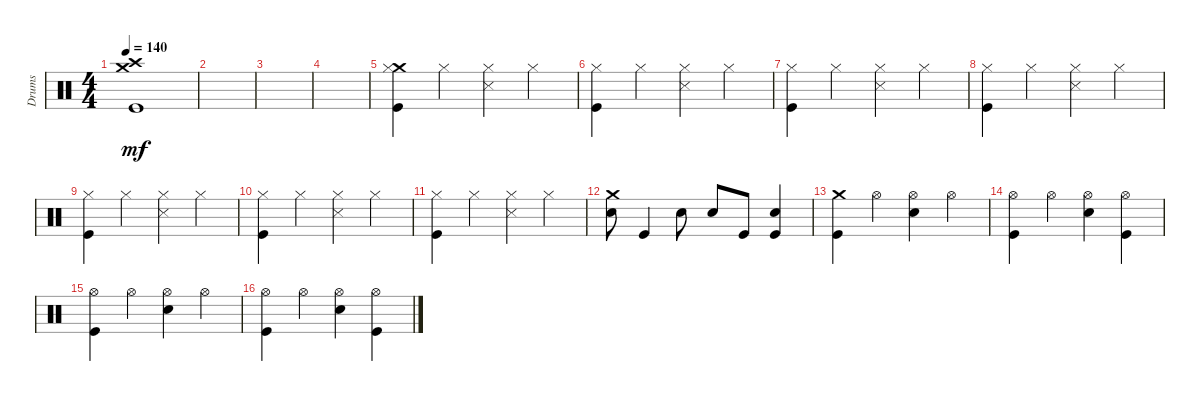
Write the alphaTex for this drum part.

\track ("Drums" "Drums") {instrument percussion}
\staff {score}
\articulation defaults
\ts (4 4)
\tempo 140
\clef neutral
\ks c
("Kick (hit)" "Crash high (hit)" "Crash medium (hit)").1{dy mf} |
|
|
|
("Kick (hit)" "Crash medium (hit)" "Hi-Hat (closed)").4 "Hi-Hat (closed)".4 ("Hi-Hat (closed)" "Snare (side stick) 3").4 "Hi-Hat (closed)".4 |
("Hi-Hat (closed)" "Kick (hit)").4 "Hi-Hat (closed)".4 ("Hi-Hat (closed)" "Snare (side stick) 3").4 "Hi-Hat (closed)".4 |
("Hi-Hat (closed)" "Kick (hit)").4 "Hi-Hat (closed)".4 ("Hi-Hat (closed)" "Snare (side stick) 3").4 "Hi-Hat (closed)".4 |
("Hi-Hat (closed)" "Kick (hit)").4 "Hi-Hat (closed)".4 ("Hi-Hat (closed)" "Snare (side stick) 3").4 "Hi-Hat (closed)".4 |
("Kick (hit)" "Hi-Hat (closed)").4 "Hi-Hat (closed)".4 ("Hi-Hat (closed)" "Snare (side stick) 3").4 "Hi-Hat (closed)".4 |
("Hi-Hat (closed)" "Kick (hit)").4 "Hi-Hat (closed)".4 ("Hi-Hat (closed)" "Snare (side stick) 3").4 "Hi-Hat (closed)".4 |
("Hi-Hat (closed)" "Kick (hit)").4 "Hi-Hat (closed)".4 ("Hi-Hat (closed)" "Snare (side stick) 3").4 "Hi-Hat (closed)".4 |
("Snare (hit) 2" "Crash medium (hit)").8 "Kick (hit)".4 "Snare (hit) 2".8 "Snare (hit) 2".8 "Kick (hit)".8 ("Kick (hit)" "Snare (hit) 2").4 |
("Crash medium (hit)" "Kick (hit)").4 "Hi-Hat (open)".4 ("Hi-Hat (open)" "Snare (hit) 2").4 "Hi-Hat (open)".4 |
("Kick (hit)" "Hi-Hat (open)").4 "Hi-Hat (open)".4 ("Hi-Hat (open)" "Snare (hit) 2").4 ("Hi-Hat (open)" "Kick (hit)").4 |
("Hi-Hat (open)" "Kick (hit)").4 "Hi-Hat (open)".4 ("Hi-Hat (open)" "Snare (hit) 2").4 "Hi-Hat (open)".4 |
("Hi-Hat (open)" "Kick (hit)").4 "Hi-Hat (open)".4 ("Hi-Hat (open)" "Snare (hit) 2").4 ("Hi-Hat (open)" "Kick (hit)").4
